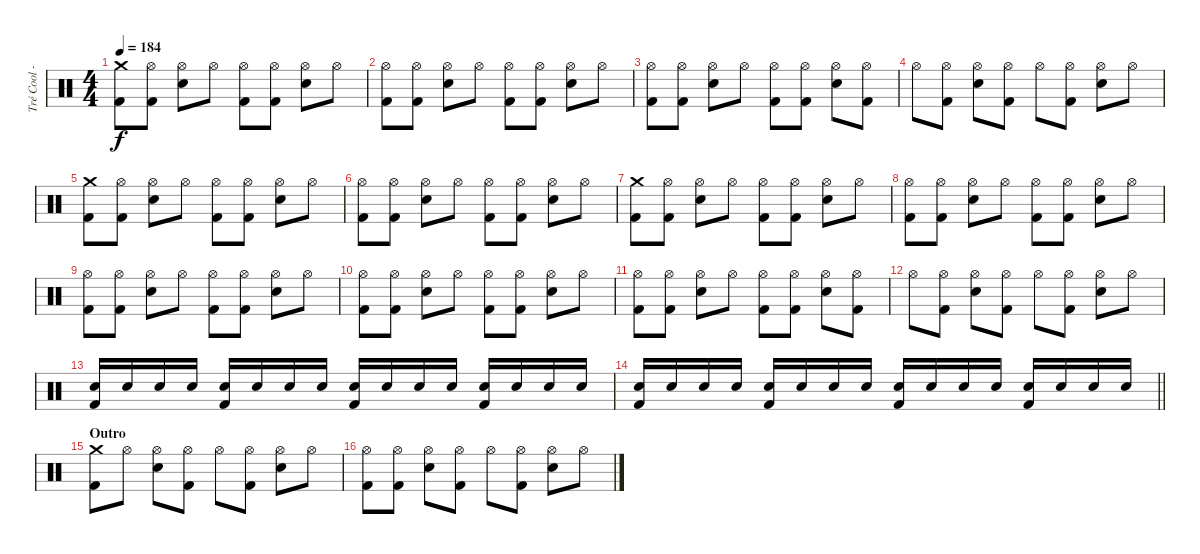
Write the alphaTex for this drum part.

\track ("Tré Cool - Drums" "Tré Cool -") {instrument percussion}
\staff {score}
\articulation defaults
\ts (4 4)
\tempo 184
\clef neutral
\ks c
("Crash medium (hit)" "Kick (hit) 2").8{dy f} ("Hi-Hat (open)" "Kick (hit) 2").8 ("Hi-Hat (open)" "Electric Snare (hit)").8 "Hi-Hat (open)".8 ("Hi-Hat (open)" "Kick (hit) 2").8 ("Hi-Hat (open)" "Kick (hit) 2").8 ("Hi-Hat (open)" "Electric Snare (hit)").8 "Hi-Hat (open)".8 |
("Hi-Hat (open)" "Kick (hit) 2").8 ("Hi-Hat (open)" "Kick (hit) 2").8 ("Hi-Hat (open)" "Electric Snare (hit)").8 "Hi-Hat (open)".8 ("Hi-Hat (open)" "Kick (hit) 2").8 ("Hi-Hat (open)" "Kick (hit) 2").8 ("Hi-Hat (open)" "Electric Snare (hit)").8 "Hi-Hat (open)".8 |
("Hi-Hat (open)" "Kick (hit) 2").8 ("Hi-Hat (open)" "Kick (hit) 2").8 ("Hi-Hat (open)" "Electric Snare (hit)").8 "Hi-Hat (open)".8 ("Hi-Hat (open)" "Kick (hit) 2").8 ("Hi-Hat (open)" "Kick (hit) 2").8 ("Hi-Hat (open)" "Electric Snare (hit)").8 ("Hi-Hat (open)" "Kick (hit) 2").8 |
"Hi-Hat (open)".8 ("Hi-Hat (open)" "Kick (hit) 2").8 ("Hi-Hat (open)" "Electric Snare (hit)").8 ("Hi-Hat (open)" "Kick (hit) 2").8 "Hi-Hat (open)".8 ("Hi-Hat (open)" "Kick (hit) 2").8 ("Hi-Hat (open)" "Electric Snare (hit)").8 "Hi-Hat (open)".8 |
("Crash medium (hit)" "Kick (hit) 2").8 ("Hi-Hat (open)" "Kick (hit) 2").8 ("Hi-Hat (open)" "Electric Snare (hit)").8 "Hi-Hat (open)".8 ("Hi-Hat (open)" "Kick (hit) 2").8 ("Hi-Hat (open)" "Kick (hit) 2").8 ("Hi-Hat (open)" "Electric Snare (hit)").8 "Hi-Hat (open)".8 |
("Hi-Hat (open)" "Kick (hit) 2").8 ("Hi-Hat (open)" "Kick (hit) 2").8 ("Hi-Hat (open)" "Electric Snare (hit)").8 "Hi-Hat (open)".8 ("Hi-Hat (open)" "Kick (hit) 2").8 ("Hi-Hat (open)" "Kick (hit) 2").8 ("Hi-Hat (open)" "Electric Snare (hit)").8 "Hi-Hat (open)".8 |
("Crash medium (hit)" "Kick (hit) 2").8 ("Hi-Hat (open)" "Kick (hit) 2").8 ("Hi-Hat (open)" "Electric Snare (hit)").8 "Hi-Hat (open)".8 ("Hi-Hat (open)" "Kick (hit) 2").8 ("Hi-Hat (open)" "Kick (hit) 2").8 ("Hi-Hat (open)" "Electric Snare (hit)").8 "Hi-Hat (open)".8 |
("Hi-Hat (open)" "Kick (hit) 2").8 ("Hi-Hat (open)" "Kick (hit) 2").8 ("Hi-Hat (open)" "Electric Snare (hit)").8 "Hi-Hat (open)".8 ("Hi-Hat (open)" "Kick (hit) 2").8 ("Hi-Hat (open)" "Kick (hit) 2").8 ("Hi-Hat (open)" "Electric Snare (hit)").8 "Hi-Hat (open)".8 |
("Hi-Hat (open)" "Kick (hit) 2").8 ("Hi-Hat (open)" "Kick (hit) 2").8 ("Hi-Hat (open)" "Electric Snare (hit)").8 "Hi-Hat (open)".8 ("Hi-Hat (open)" "Kick (hit) 2").8 ("Hi-Hat (open)" "Kick (hit) 2").8 ("Hi-Hat (open)" "Electric Snare (hit)").8 "Hi-Hat (open)".8 |
("Hi-Hat (open)" "Kick (hit) 2").8 ("Hi-Hat (open)" "Kick (hit) 2").8 ("Hi-Hat (open)" "Electric Snare (hit)").8 "Hi-Hat (open)".8 ("Hi-Hat (open)" "Kick (hit) 2").8 ("Hi-Hat (open)" "Kick (hit) 2").8 ("Hi-Hat (open)" "Electric Snare (hit)").8 "Hi-Hat (open)".8 |
("Hi-Hat (open)" "Kick (hit) 2").8 ("Hi-Hat (open)" "Kick (hit) 2").8 ("Hi-Hat (open)" "Electric Snare (hit)").8 "Hi-Hat (open)".8 ("Hi-Hat (open)" "Kick (hit) 2").8 ("Hi-Hat (open)" "Kick (hit) 2").8 ("Hi-Hat (open)" "Electric Snare (hit)").8 ("Hi-Hat (open)" "Kick (hit) 2").8 |
"Hi-Hat (open)".8 ("Hi-Hat (open)" "Kick (hit) 2").8 ("Hi-Hat (open)" "Electric Snare (hit)").8 ("Hi-Hat (open)" "Kick (hit) 2").8 "Hi-Hat (open)".8 ("Hi-Hat (open)" "Kick (hit) 2").8 ("Hi-Hat (open)" "Electric Snare (hit)").8 "Hi-Hat (open)".8 |
("Electric Snare (hit)" "Kick (hit) 2").16 "Electric Snare (hit)".16 "Electric Snare (hit)".16 "Electric Snare (hit)".16 ("Electric Snare (hit)" "Kick (hit) 2").16 "Electric Snare (hit)".16 "Electric Snare (hit)".16 "Electric Snare (hit)".16 ("Electric Snare (hit)" "Kick (hit) 2").16 "Electric Snare (hit)".16 "Electric Snare (hit)".16 "Electric Snare (hit)".16 ("Electric Snare (hit)" "Kick (hit) 2").16 "Electric Snare (hit)".16 "Electric Snare (hit)".16 "Electric Snare (hit)".16 |
\barLineRight lightlight
("Electric Snare (hit)" "Kick (hit) 2").16 "Electric Snare (hit)".16 "Electric Snare (hit)".16 "Electric Snare (hit)".16 ("Electric Snare (hit)" "Kick (hit) 2").16 "Electric Snare (hit)".16 "Electric Snare (hit)".16 "Electric Snare (hit)".16 ("Electric Snare (hit)" "Kick (hit) 2").16 "Electric Snare (hit)".16 "Electric Snare (hit)".16 "Electric Snare (hit)".16 ("Electric Snare (hit)" "Kick (hit) 2").16 "Electric Snare (hit)".16 "Electric Snare (hit)".16 "Electric Snare (hit)".16 |
\section ("" "Outro")
("Crash medium (hit)" "Kick (hit) 2").8 "Hi-Hat (open)".8 ("Hi-Hat (open)" "Electric Snare (hit)").8 ("Hi-Hat (open)" "Kick (hit) 2").8 "Hi-Hat (open)".8 ("Hi-Hat (open)" "Kick (hit) 2").8 ("Hi-Hat (open)" "Electric Snare (hit)").8 "Hi-Hat (open)".8 |
("Hi-Hat (open)" "Kick (hit) 2").8 ("Hi-Hat (open)" "Kick (hit) 2").8 ("Hi-Hat (open)" "Electric Snare (hit)").8 ("Hi-Hat (open)" "Kick (hit) 2").8 "Hi-Hat (open)".8 ("Hi-Hat (open)" "Kick (hit) 2").8 ("Hi-Hat (open)" "Electric Snare (hit)").8 "Hi-Hat (open)".8
